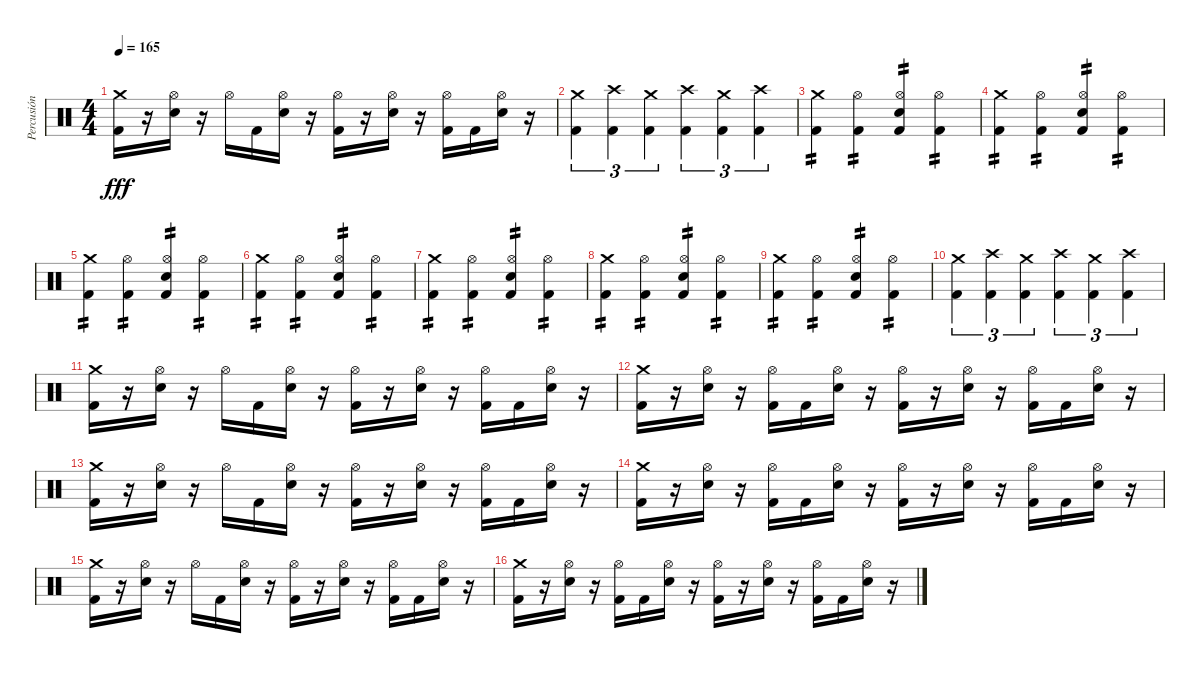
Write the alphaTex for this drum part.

\track ("Percusión" "Percusión") {instrument percussion}
\staff {score}
\articulation defaults
\ts (4 4)
\tempo 165
\clef neutral
\ks c
("Crash medium (hit)" "Kick (hit) 2").16{dy fff} r.16 ("Hi-Hat (open)" "Electric Snare (hit)").16 r.16 "Hi-Hat (open)".16 "Kick (hit) 2".16 ("Hi-Hat (open)" "Electric Snare (hit)").16 r.16 ("Hi-Hat (open)" "Kick (hit) 2").16 r.16 ("Hi-Hat (open)" "Electric Snare (hit)").16 r.16 ("Hi-Hat (open)" "Kick (hit) 2").16 "Kick (hit) 2".16 ("Hi-Hat (open)" "Electric Snare (hit)").16 r.16 |
("Crash medium (hit)" "Kick (hit) 2").4{tu (3 2)} ("Crash high (hit)" "Kick (hit) 2").4{tu (3 2)} ("Crash medium (hit)" "Kick (hit) 2").4{tu (3 2)} ("Crash high (hit)" "Kick (hit) 2").4{tu (3 2)} ("Crash medium (hit)" "Kick (hit) 2").4{tu (3 2)} ("Crash high (hit)" "Kick (hit) 2").4{tu (3 2)} |
("Crash medium (hit)" "Kick (hit) 2").4{tp 2} ("Hi-Hat (open)" "Kick (hit) 2").4{tp 2} ("Hi-Hat (open)" "Electric Snare (hit)" "Kick (hit) 2").4{tp 2} ("Hi-Hat (open)" "Kick (hit) 2").4{tp 2} |
("Crash medium (hit)" "Kick (hit) 2").4{tp 2} ("Hi-Hat (open)" "Kick (hit) 2").4{tp 2} ("Hi-Hat (open)" "Electric Snare (hit)" "Kick (hit) 2").4{tp 2} ("Hi-Hat (open)" "Kick (hit) 2").4{tp 2} |
("Crash medium (hit)" "Kick (hit) 2").4{tp 2} ("Hi-Hat (open)" "Kick (hit) 2").4{tp 2} ("Hi-Hat (open)" "Electric Snare (hit)" "Kick (hit) 2").4{tp 2} ("Hi-Hat (open)" "Kick (hit) 2").4{tp 2} |
("Crash medium (hit)" "Kick (hit) 2").4{tp 2} ("Hi-Hat (open)" "Kick (hit) 2").4{tp 2} ("Hi-Hat (open)" "Electric Snare (hit)" "Kick (hit) 2").4{tp 2} ("Hi-Hat (open)" "Kick (hit) 2").4{tp 2} |
("Crash medium (hit)" "Kick (hit) 2").4{tp 2} ("Hi-Hat (open)" "Kick (hit) 2").4{tp 2} ("Hi-Hat (open)" "Electric Snare (hit)" "Kick (hit) 2").4{tp 2} ("Hi-Hat (open)" "Kick (hit) 2").4{tp 2} |
("Crash medium (hit)" "Kick (hit) 2").4{tp 2} ("Hi-Hat (open)" "Kick (hit) 2").4{tp 2} ("Hi-Hat (open)" "Electric Snare (hit)" "Kick (hit) 2").4{tp 2} ("Hi-Hat (open)" "Kick (hit) 2").4{tp 2} |
("Crash medium (hit)" "Kick (hit) 2").4{tp 2} ("Hi-Hat (open)" "Kick (hit) 2").4{tp 2} ("Hi-Hat (open)" "Electric Snare (hit)" "Kick (hit) 2").4{tp 2} ("Hi-Hat (open)" "Kick (hit) 2").4{tp 2} |
("Crash medium (hit)" "Kick (hit) 2").4{tu (3 2)} ("Crash high (hit)" "Kick (hit) 2").4{tu (3 2)} ("Crash medium (hit)" "Kick (hit) 2").4{tu (3 2)} ("Crash high (hit)" "Kick (hit) 2").4{tu (3 2)} ("Crash medium (hit)" "Kick (hit) 2").4{tu (3 2)} ("Crash high (hit)" "Kick (hit) 2").4{tu (3 2)} |
("Crash medium (hit)" "Kick (hit) 2").16 r.16 ("Hi-Hat (open)" "Electric Snare (hit)").16 r.16 "Hi-Hat (open)".16 "Kick (hit) 2".16 ("Hi-Hat (open)" "Electric Snare (hit)").16 r.16 ("Hi-Hat (open)" "Kick (hit) 2").16 r.16 ("Hi-Hat (open)" "Electric Snare (hit)").16 r.16 ("Hi-Hat (open)" "Kick (hit) 2").16 "Kick (hit) 2".16 ("Hi-Hat (open)" "Electric Snare (hit)").16 r.16 |
("Crash medium (hit)" "Kick (hit) 2").16 r.16 ("Hi-Hat (open)" "Electric Snare (hit)").16 r.16 ("Hi-Hat (open)" "Kick (hit) 2").16 "Kick (hit) 2".16 ("Hi-Hat (open)" "Electric Snare (hit)").16 r.16 ("Hi-Hat (open)" "Kick (hit) 2").16 r.16 ("Hi-Hat (open)" "Electric Snare (hit)").16 r.16 ("Hi-Hat (open)" "Kick (hit) 2").16 "Kick (hit) 2".16 ("Hi-Hat (open)" "Electric Snare (hit)").16 r.16 |
("Crash medium (hit)" "Kick (hit) 2").16 r.16 ("Hi-Hat (open)" "Electric Snare (hit)").16 r.16 "Hi-Hat (open)".16 "Kick (hit) 2".16 ("Hi-Hat (open)" "Electric Snare (hit)").16 r.16 ("Hi-Hat (open)" "Kick (hit) 2").16 r.16 ("Hi-Hat (open)" "Electric Snare (hit)").16 r.16 ("Hi-Hat (open)" "Kick (hit) 2").16 "Kick (hit) 2".16 ("Hi-Hat (open)" "Electric Snare (hit)").16 r.16 |
("Crash medium (hit)" "Kick (hit) 2").16 r.16 ("Hi-Hat (open)" "Electric Snare (hit)").16 r.16 ("Hi-Hat (open)" "Kick (hit) 2").16 "Kick (hit) 2".16 ("Hi-Hat (open)" "Electric Snare (hit)").16 r.16 ("Hi-Hat (open)" "Kick (hit) 2").16 r.16 ("Hi-Hat (open)" "Electric Snare (hit)").16 r.16 ("Hi-Hat (open)" "Kick (hit) 2").16 "Kick (hit) 2".16 ("Hi-Hat (open)" "Electric Snare (hit)").16 r.16 |
("Crash medium (hit)" "Kick (hit) 2").16 r.16 ("Hi-Hat (open)" "Electric Snare (hit)").16 r.16 "Hi-Hat (open)".16 "Kick (hit) 2".16 ("Hi-Hat (open)" "Electric Snare (hit)").16 r.16 ("Hi-Hat (open)" "Kick (hit) 2").16 r.16 ("Hi-Hat (open)" "Electric Snare (hit)").16 r.16 ("Hi-Hat (open)" "Kick (hit) 2").16 "Kick (hit) 2".16 ("Hi-Hat (open)" "Electric Snare (hit)").16 r.16 |
("Crash medium (hit)" "Kick (hit) 2").16 r.16 ("Hi-Hat (open)" "Electric Snare (hit)").16 r.16 ("Hi-Hat (open)" "Kick (hit) 2").16 "Kick (hit) 2".16 ("Hi-Hat (open)" "Electric Snare (hit)").16 r.16 ("Hi-Hat (open)" "Kick (hit) 2").16 r.16 ("Hi-Hat (open)" "Electric Snare (hit)").16 r.16 ("Hi-Hat (open)" "Kick (hit) 2").16 "Kick (hit) 2".16 ("Hi-Hat (open)" "Electric Snare (hit)").16 r.16
